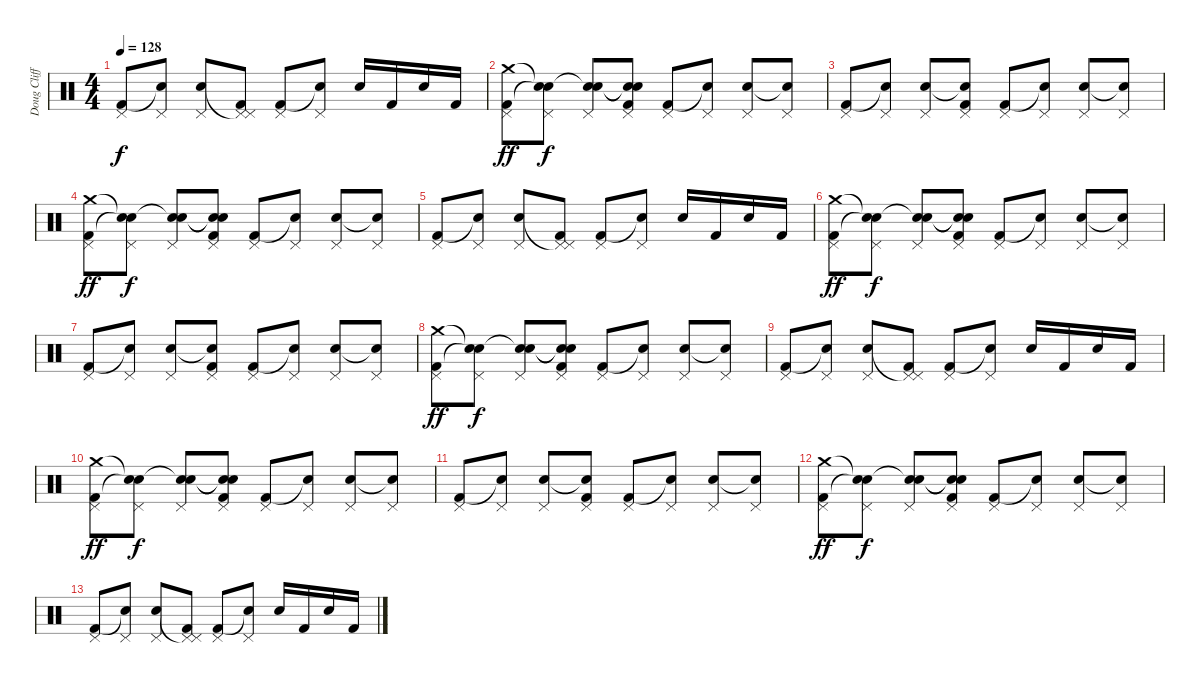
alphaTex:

\track ("Doug Clifford" "Doug Cliff") {instrument percussion}
\staff {score}
\articulation defaults
\ts (4 4)
\tempo 128
\clef neutral
\ks c
("Pedal Hi-Hat (hit)" "Kick (hit) 2").8{dy f} ("Pedal Hi-Hat (hit)" "Snare (hit)"{t}).8 ("Pedal Hi-Hat (hit)" "Snare (hit) 2").8 ("Pedal Hi-Hat (hit)" "Pedal Hi-Hat (hit)"{t} "Kick (hit) 2").8 ("Pedal Hi-Hat (hit)" "Kick (hit) 2").8 ("Pedal Hi-Hat (hit)" "Snare (hit)"{t}).8 "Snare (hit) 2".16 "Kick (hit) 2".16 "Snare (hit) 2".16 "Kick (hit) 2".16 |
("Crash medium (hit)" "Pedal Hi-Hat (hit)" "Kick (hit) 2").8{dy ff} ("Snare (hit)"{t} "Pedal Hi-Hat (hit)" "Snare (hit)"{t}).8{dy f} ("Snare (hit)"{t} "Pedal Hi-Hat (hit)" "Snare (hit) 2").8 ("Snare (hit)"{t} "Pedal Hi-Hat (hit)" "Snare (hit)"{t} "Kick (hit) 2").8 ("Pedal Hi-Hat (hit)" "Kick (hit) 2").8 ("Pedal Hi-Hat (hit)" "Snare (hit)"{t}).8 ("Pedal Hi-Hat (hit)" "Snare (hit) 2").8 ("Pedal Hi-Hat (hit)" "Snare (hit)"{t}).8 |
("Pedal Hi-Hat (hit)" "Kick (hit) 2").8 ("Pedal Hi-Hat (hit)" "Snare (hit)"{t}).8 ("Pedal Hi-Hat (hit)" "Snare (hit) 2").8 ("Pedal Hi-Hat (hit)" "Snare (hit)"{t} "Kick (hit) 2").8 ("Pedal Hi-Hat (hit)" "Kick (hit) 2").8 ("Pedal Hi-Hat (hit)" "Snare (hit)"{t}).8 ("Pedal Hi-Hat (hit)" "Snare (hit) 2").8 ("Pedal Hi-Hat (hit)" "Snare (hit)"{t}).8 |
("Crash medium (hit)" "Pedal Hi-Hat (hit)" "Kick (hit) 2").8{dy ff} ("Snare (hit)"{t} "Pedal Hi-Hat (hit)" "Snare (hit)"{t}).8{dy f} ("Snare (hit)"{t} "Pedal Hi-Hat (hit)" "Snare (hit) 2").8 ("Snare (hit)"{t} "Pedal Hi-Hat (hit)" "Snare (hit)"{t} "Kick (hit) 2").8 ("Pedal Hi-Hat (hit)" "Kick (hit) 2").8 ("Pedal Hi-Hat (hit)" "Snare (hit)"{t}).8 ("Pedal Hi-Hat (hit)" "Snare (hit) 2").8 ("Pedal Hi-Hat (hit)" "Snare (hit)"{t}).8 |
("Pedal Hi-Hat (hit)" "Kick (hit) 2").8 ("Pedal Hi-Hat (hit)" "Snare (hit)"{t}).8 ("Pedal Hi-Hat (hit)" "Snare (hit) 2").8 ("Pedal Hi-Hat (hit)" "Pedal Hi-Hat (hit)"{t} "Kick (hit) 2").8 ("Pedal Hi-Hat (hit)" "Kick (hit) 2").8 ("Pedal Hi-Hat (hit)" "Snare (hit)"{t}).8 "Snare (hit) 2".16 "Kick (hit) 2".16 "Snare (hit) 2".16 "Kick (hit) 2".16 |
("Crash medium (hit)" "Pedal Hi-Hat (hit)" "Kick (hit) 2").8{dy ff volume 12} ("Snare (hit)"{t} "Pedal Hi-Hat (hit)" "Snare (hit)"{t}).8{dy f} ("Snare (hit)"{t} "Pedal Hi-Hat (hit)" "Snare (hit) 2").8 ("Snare (hit)"{t} "Pedal Hi-Hat (hit)" "Snare (hit)"{t} "Kick (hit) 2").8 ("Pedal Hi-Hat (hit)" "Kick (hit) 2").8 ("Pedal Hi-Hat (hit)" "Snare (hit)"{t}).8 ("Pedal Hi-Hat (hit)" "Snare (hit) 2").8 ("Pedal Hi-Hat (hit)" "Snare (hit)"{t}).8 |
("Pedal Hi-Hat (hit)" "Kick (hit) 2").8{volume 11} ("Pedal Hi-Hat (hit)" "Snare (hit)"{t}).8 ("Pedal Hi-Hat (hit)" "Snare (hit) 2").8 ("Pedal Hi-Hat (hit)" "Snare (hit)"{t} "Kick (hit) 2").8 ("Pedal Hi-Hat (hit)" "Kick (hit) 2").8 ("Pedal Hi-Hat (hit)" "Snare (hit)"{t}).8 ("Pedal Hi-Hat (hit)" "Snare (hit) 2").8 ("Pedal Hi-Hat (hit)" "Snare (hit)"{t}).8 |
("Crash medium (hit)" "Pedal Hi-Hat (hit)" "Kick (hit) 2").8{dy ff volume 10} ("Snare (hit)"{t} "Pedal Hi-Hat (hit)" "Snare (hit)"{t}).8{dy f} ("Snare (hit)"{t} "Pedal Hi-Hat (hit)" "Snare (hit) 2").8 ("Snare (hit)"{t} "Pedal Hi-Hat (hit)" "Snare (hit)"{t} "Kick (hit) 2").8 ("Pedal Hi-Hat (hit)" "Kick (hit) 2").8 ("Pedal Hi-Hat (hit)" "Snare (hit)"{t}).8 ("Pedal Hi-Hat (hit)" "Snare (hit) 2").8 ("Pedal Hi-Hat (hit)" "Snare (hit)"{t}).8 |
("Pedal Hi-Hat (hit)" "Kick (hit) 2").8{volume 9} ("Pedal Hi-Hat (hit)" "Snare (hit)"{t}).8 ("Pedal Hi-Hat (hit)" "Snare (hit) 2").8 ("Pedal Hi-Hat (hit)" "Pedal Hi-Hat (hit)"{t} "Kick (hit) 2").8 ("Pedal Hi-Hat (hit)" "Kick (hit) 2").8 ("Pedal Hi-Hat (hit)" "Snare (hit)"{t}).8 "Snare (hit) 2".16 "Kick (hit) 2".16 "Snare (hit) 2".16 "Kick (hit) 2".16 |
("Crash medium (hit)" "Pedal Hi-Hat (hit)" "Kick (hit) 2").8{dy ff volume 7} ("Snare (hit)"{t} "Pedal Hi-Hat (hit)" "Snare (hit)"{t}).8{dy f} ("Snare (hit)"{t} "Pedal Hi-Hat (hit)" "Snare (hit) 2").8 ("Snare (hit)"{t} "Pedal Hi-Hat (hit)" "Snare (hit)"{t} "Kick (hit) 2").8 ("Pedal Hi-Hat (hit)" "Kick (hit) 2").8 ("Pedal Hi-Hat (hit)" "Snare (hit)"{t}).8 ("Pedal Hi-Hat (hit)" "Snare (hit) 2").8 ("Pedal Hi-Hat (hit)" "Snare (hit)"{t}).8 |
("Pedal Hi-Hat (hit)" "Kick (hit) 2").8{volume 5} ("Pedal Hi-Hat (hit)" "Snare (hit)"{t}).8 ("Pedal Hi-Hat (hit)" "Snare (hit) 2").8 ("Pedal Hi-Hat (hit)" "Snare (hit)"{t} "Kick (hit) 2").8 ("Pedal Hi-Hat (hit)" "Kick (hit) 2").8 ("Pedal Hi-Hat (hit)" "Snare (hit)"{t}).8 ("Pedal Hi-Hat (hit)" "Snare (hit) 2").8 ("Pedal Hi-Hat (hit)" "Snare (hit)"{t}).8 |
("Crash medium (hit)" "Pedal Hi-Hat (hit)" "Kick (hit) 2").8{dy ff volume 3} ("Snare (hit)"{t} "Pedal Hi-Hat (hit)" "Snare (hit)"{t}).8{dy f} ("Snare (hit)"{t} "Pedal Hi-Hat (hit)" "Snare (hit) 2").8 ("Snare (hit)"{t} "Pedal Hi-Hat (hit)" "Snare (hit)"{t} "Kick (hit) 2").8 ("Pedal Hi-Hat (hit)" "Kick (hit) 2").8 ("Pedal Hi-Hat (hit)" "Snare (hit)"{t}).8 ("Pedal Hi-Hat (hit)" "Snare (hit) 2").8 ("Pedal Hi-Hat (hit)" "Snare (hit)"{t}).8 |
("Pedal Hi-Hat (hit)" "Kick (hit) 2").8{volume 2} ("Pedal Hi-Hat (hit)" "Snare (hit)"{t}).8 ("Pedal Hi-Hat (hit)" "Snare (hit) 2").8 ("Pedal Hi-Hat (hit)" "Pedal Hi-Hat (hit)"{t} "Kick (hit) 2").8 ("Pedal Hi-Hat (hit)" "Kick (hit) 2").8 ("Pedal Hi-Hat (hit)" "Snare (hit)"{t}).8 "Snare (hit) 2".16 "Kick (hit) 2".16 "Snare (hit) 2".16 "Kick (hit) 2".16
